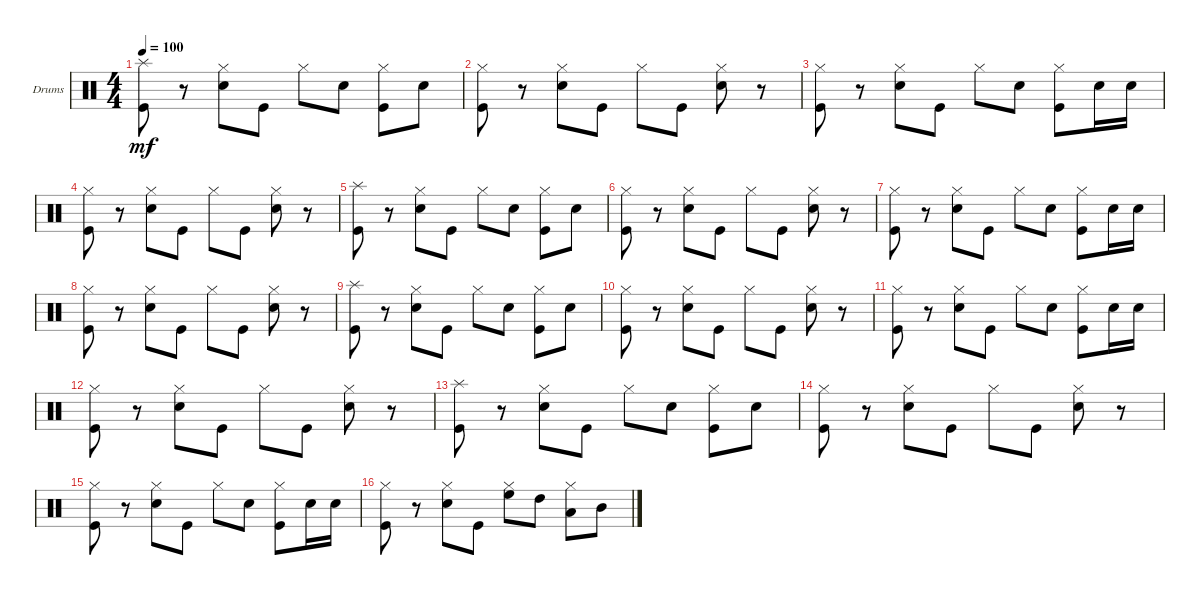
\defaultSystemsLayout 4
\bracketExtendMode groupsimilarinstruments
\firstSystemTrackNameOrientation horizontal
\otherSystemsTrackNameOrientation horizontal
\track ("Drumkit" "Drums") {instrument percussion}
\staff {score}
\articulation defaults
\ts (4 4)
\tempo 100
\clef neutral
\scale
0.474178
\ks c
("Kick (hit)" "Splash (hit)").8{dy mf} r.8 ("Snare (hit) 2" "Hi-Hat (closed)").8 "Kick (hit)".8 "Hi-Hat (closed)".8 "Snare (hit) 2".8 ("Kick (hit)" "Hi-Hat (closed)").8 "Snare (hit) 2".8 |
\scale
0.262911 ("Kick (hit)" "Hi-Hat (closed)").8 r.8 ("Snare (hit) 2" "Hi-Hat (closed)").8 "Kick (hit)".8 "Hi-Hat (closed)".8 "Kick (hit)".8 ("Snare (hit) 2" "Hi-Hat (closed)").8 r.8 |
\scale
0.262911 ("Kick (hit)" "Hi-Hat (closed)").8 r.8 ("Snare (hit) 2" "Hi-Hat (closed)").8 "Kick (hit)".8 "Hi-Hat (closed)".8 "Snare (hit) 2".8 ("Kick (hit)" "Hi-Hat (closed)").8 "Snare (hit) 2".16 "Snare (hit) 2".16 |
("Kick (hit)" "Hi-Hat (closed)").8 r.8 ("Snare (hit) 2" "Hi-Hat (closed)").8 "Kick (hit)".8 "Hi-Hat (closed)".8 "Kick (hit)".8 ("Snare (hit) 2" "Hi-Hat (closed)").8 r.8 |
("Kick (hit)" "Splash (hit)").8 r.8 ("Snare (hit) 2" "Hi-Hat (closed)").8 "Kick (hit)".8 "Hi-Hat (closed)".8 "Snare (hit) 2".8 ("Kick (hit)" "Hi-Hat (closed)").8 "Snare (hit) 2".8 |
("Kick (hit)" "Hi-Hat (closed)").8 r.8 ("Snare (hit) 2" "Hi-Hat (closed)").8 "Kick (hit)".8 "Hi-Hat (closed)".8 "Kick (hit)".8 ("Snare (hit) 2" "Hi-Hat (closed)").8 r.8 |
("Kick (hit)" "Hi-Hat (closed)").8 r.8 ("Snare (hit) 2" "Hi-Hat (closed)").8 "Kick (hit)".8 "Hi-Hat (closed)".8 "Snare (hit) 2".8 ("Kick (hit)" "Hi-Hat (closed)").8 "Snare (hit) 2".16 "Snare (hit) 2".16 |
("Kick (hit)" "Hi-Hat (closed)").8 r.8 ("Snare (hit) 2" "Hi-Hat (closed)").8 "Kick (hit)".8 "Hi-Hat (closed)".8 "Kick (hit)".8 ("Snare (hit) 2" "Hi-Hat (closed)").8 r.8 |
("Kick (hit)" "Splash (hit)").8 r.8 ("Snare (hit) 2" "Hi-Hat (closed)").8 "Kick (hit)".8 "Hi-Hat (closed)".8 "Snare (hit) 2".8 ("Kick (hit)" "Hi-Hat (closed)").8 "Snare (hit) 2".8 |
("Kick (hit)" "Hi-Hat (closed)").8 r.8 ("Snare (hit) 2" "Hi-Hat (closed)").8 "Kick (hit)".8 "Hi-Hat (closed)".8 "Kick (hit)".8 ("Snare (hit) 2" "Hi-Hat (closed)").8 r.8 |
("Kick (hit)" "Hi-Hat (closed)").8 r.8 ("Snare (hit) 2" "Hi-Hat (closed)").8 "Kick (hit)".8 "Hi-Hat (closed)".8 "Snare (hit) 2".8 ("Kick (hit)" "Hi-Hat (closed)").8 "Snare (hit) 2".16 "Snare (hit) 2".16 |
("Kick (hit)" "Hi-Hat (closed)").8 r.8 ("Snare (hit) 2" "Hi-Hat (closed)").8 "Kick (hit)".8 "Hi-Hat (closed)".8 "Kick (hit)".8 ("Snare (hit) 2" "Hi-Hat (closed)").8 r.8 |
("Kick (hit)" "Splash (hit)").8 r.8 ("Snare (hit) 2" "Hi-Hat (closed)").8 "Kick (hit)".8 "Hi-Hat (closed)".8 "Snare (hit) 2".8 ("Kick (hit)" "Hi-Hat (closed)").8 "Snare (hit) 2".8 |
("Kick (hit)" "Hi-Hat (closed)").8 r.8 ("Snare (hit) 2" "Hi-Hat (closed)").8 "Kick (hit)".8 "Hi-Hat (closed)".8 "Kick (hit)".8 ("Snare (hit) 2" "Hi-Hat (closed)").8 r.8 |
("Kick (hit)" "Hi-Hat (closed)").8 r.8 ("Snare (hit) 2" "Hi-Hat (closed)").8 "Kick (hit)".8 "Hi-Hat (closed)".8 "Snare (hit) 2".8 ("Kick (hit)" "Hi-Hat (closed)").8 "Snare (hit) 2".16 "Snare (hit) 2".16 |
("Kick (hit)" "Hi-Hat (closed)").8 r.8 ("Snare (hit) 2" "Hi-Hat (closed)").8 "Kick (hit)".8 ("Hi-Hat (closed)" "High Floor Tom (hit)").8 "High Tom (hit)".8 ("Hi-Hat (closed)" "Low Tom (hit)").8 "Mid Tom (hit)".8
